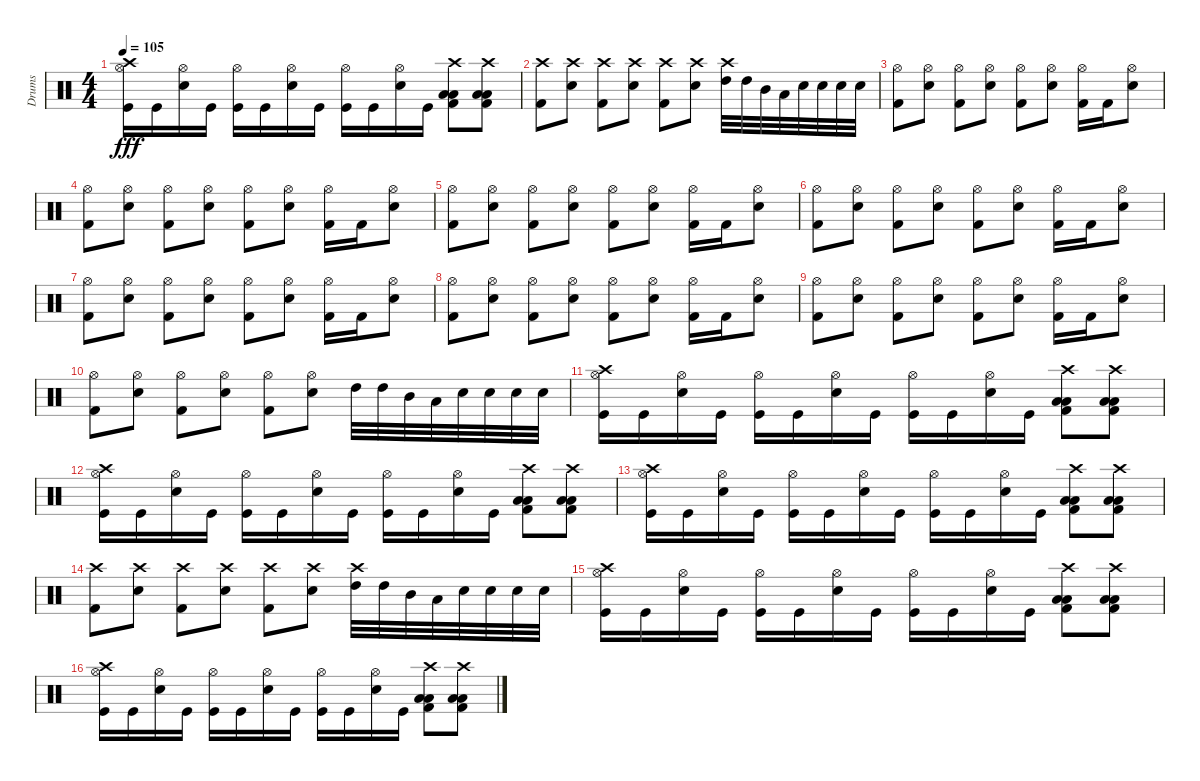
\track ("Drums" "Drums") {instrument percussion}
\staff {score}
\articulation defaults
\ts (4 4)
\tempo 105
\clef neutral
\ks c
("Crash high (hit)" "Hi-Hat (open)" "Kick (hit)").16{dy fff} "Kick (hit)".16 ("Hi-Hat (open)" "Snare (hit) 2").16 "Kick (hit)".16 ("Hi-Hat (open)" "Kick (hit)").16 "Kick (hit)".16 ("Hi-Hat (open)" "Snare (hit) 2").16 "Kick (hit)".16 ("Hi-Hat (open)" "Kick (hit)").16 "Kick (hit)".16 ("Hi-Hat (open)" "Snare (hit) 2").16 "Kick (hit)".16 ("Crash high (hit)" "Low Tom (hit)" "Low Tom (hit)" "Kick (hit) 2").8 ("Crash high (hit)" "Low Tom (hit)" "Low Tom (hit)" "Kick (hit) 2").8 |
("Crash high (hit)" "Kick (hit) 2").8 ("Crash high (hit)" "Snare (hit) 2").8 ("Crash high (hit)" "Kick (hit) 2").8 ("Crash high (hit)" "Snare (hit) 2").8 ("Crash high (hit)" "Kick (hit) 2").8 ("Crash high (hit)" "Snare (hit) 2").8 ("Crash high (hit)" "High Tom (hit)").32 "High Tom (hit)".32 "Mid Tom (hit)".32 "Low Tom (hit)".32 "Snare (hit) 2".32 "Snare (hit) 2".32 "Snare (hit) 2".32 "Snare (hit) 2".32 |
("Hi-Hat (open)" "Kick (hit) 2").8 ("Hi-Hat (open)" "Snare (hit) 2").8 ("Hi-Hat (open)" "Kick (hit) 2").8 ("Hi-Hat (open)" "Snare (hit) 2").8 ("Hi-Hat (open)" "Kick (hit) 2").8 ("Hi-Hat (open)" "Snare (hit) 2").8 ("Hi-Hat (open)" "Kick (hit) 2").16 "Kick (hit) 2".16 ("Hi-Hat (open)" "Snare (hit) 2").8 |
("Hi-Hat (open)" "Kick (hit) 2").8 ("Hi-Hat (open)" "Snare (hit) 2").8 ("Hi-Hat (open)" "Kick (hit) 2").8 ("Hi-Hat (open)" "Snare (hit) 2").8 ("Hi-Hat (open)" "Kick (hit) 2").8 ("Hi-Hat (open)" "Snare (hit) 2").8 ("Hi-Hat (open)" "Kick (hit) 2").16 "Kick (hit) 2".16 ("Hi-Hat (open)" "Snare (hit) 2").8 |
("Hi-Hat (open)" "Kick (hit) 2").8 ("Hi-Hat (open)" "Snare (hit) 2").8 ("Hi-Hat (open)" "Kick (hit) 2").8 ("Hi-Hat (open)" "Snare (hit) 2").8 ("Hi-Hat (open)" "Kick (hit) 2").8 ("Hi-Hat (open)" "Snare (hit) 2").8 ("Hi-Hat (open)" "Kick (hit) 2").16 "Kick (hit) 2".16 ("Hi-Hat (open)" "Snare (hit) 2").8 |
("Hi-Hat (open)" "Kick (hit) 2").8 ("Hi-Hat (open)" "Snare (hit) 2").8 ("Hi-Hat (open)" "Kick (hit) 2").8 ("Hi-Hat (open)" "Snare (hit) 2").8 ("Hi-Hat (open)" "Kick (hit) 2").8 ("Hi-Hat (open)" "Snare (hit) 2").8 ("Hi-Hat (open)" "Kick (hit) 2").16 "Kick (hit) 2".16 ("Hi-Hat (open)" "Snare (hit) 2").8 |
("Hi-Hat (open)" "Kick (hit) 2").8 ("Hi-Hat (open)" "Snare (hit) 2").8 ("Hi-Hat (open)" "Kick (hit) 2").8 ("Hi-Hat (open)" "Snare (hit) 2").8 ("Hi-Hat (open)" "Kick (hit) 2").8 ("Hi-Hat (open)" "Snare (hit) 2").8 ("Hi-Hat (open)" "Kick (hit) 2").16 "Kick (hit) 2".16 ("Hi-Hat (open)" "Snare (hit) 2").8 |
("Hi-Hat (open)" "Kick (hit) 2").8 ("Hi-Hat (open)" "Snare (hit) 2").8 ("Hi-Hat (open)" "Kick (hit) 2").8 ("Hi-Hat (open)" "Snare (hit) 2").8 ("Hi-Hat (open)" "Kick (hit) 2").8 ("Hi-Hat (open)" "Snare (hit) 2").8 ("Hi-Hat (open)" "Kick (hit) 2").16 "Kick (hit) 2".16 ("Hi-Hat (open)" "Snare (hit) 2").8 |
("Hi-Hat (open)" "Kick (hit) 2").8 ("Hi-Hat (open)" "Snare (hit) 2").8 ("Hi-Hat (open)" "Kick (hit) 2").8 ("Hi-Hat (open)" "Snare (hit) 2").8 ("Hi-Hat (open)" "Kick (hit) 2").8 ("Hi-Hat (open)" "Snare (hit) 2").8 ("Hi-Hat (open)" "Kick (hit) 2").16 "Kick (hit) 2".16 ("Hi-Hat (open)" "Snare (hit) 2").8 |
("Hi-Hat (open)" "Kick (hit) 2").8 ("Hi-Hat (open)" "Snare (hit) 2").8 ("Hi-Hat (open)" "Kick (hit) 2").8 ("Hi-Hat (open)" "Snare (hit) 2").8 ("Hi-Hat (open)" "Kick (hit) 2").8 ("Hi-Hat (open)" "Snare (hit) 2").8 "High Tom (hit)".32 "High Tom (hit)".32 "Mid Tom (hit)".32 "Low Tom (hit)".32 "Snare (hit) 2".32 "Snare (hit) 2".32 "Snare (hit) 2".32 "Snare (hit) 2".32 |
("Crash high (hit)" "Hi-Hat (open)" "Kick (hit)").16 "Kick (hit)".16 ("Hi-Hat (open)" "Snare (hit) 2").16 "Kick (hit)".16 ("Hi-Hat (open)" "Kick (hit)").16 "Kick (hit)".16 ("Hi-Hat (open)" "Snare (hit) 2").16 "Kick (hit)".16 ("Hi-Hat (open)" "Kick (hit)").16 "Kick (hit)".16 ("Hi-Hat (open)" "Snare (hit) 2").16 "Kick (hit)".16 ("Crash high (hit)" "Low Tom (hit)" "Low Tom (hit)" "Kick (hit) 2").8 ("Crash high (hit)" "Low Tom (hit)" "Low Tom (hit)" "Kick (hit) 2").8 |
("Crash high (hit)" "Hi-Hat (open)" "Kick (hit)").16 "Kick (hit)".16 ("Hi-Hat (open)" "Snare (hit) 2").16 "Kick (hit)".16 ("Hi-Hat (open)" "Kick (hit)").16 "Kick (hit)".16 ("Hi-Hat (open)" "Snare (hit) 2").16 "Kick (hit)".16 ("Hi-Hat (open)" "Kick (hit)").16 "Kick (hit)".16 ("Hi-Hat (open)" "Snare (hit) 2").16 "Kick (hit)".16 ("Crash high (hit)" "Low Tom (hit)" "Low Tom (hit)" "Kick (hit) 2").8 ("Crash high (hit)" "Low Tom (hit)" "Low Tom (hit)" "Kick (hit) 2").8 |
("Crash high (hit)" "Hi-Hat (open)" "Kick (hit)").16 "Kick (hit)".16 ("Hi-Hat (open)" "Snare (hit) 2").16 "Kick (hit)".16 ("Hi-Hat (open)" "Kick (hit)").16 "Kick (hit)".16 ("Hi-Hat (open)" "Snare (hit) 2").16 "Kick (hit)".16 ("Hi-Hat (open)" "Kick (hit)").16 "Kick (hit)".16 ("Hi-Hat (open)" "Snare (hit) 2").16 "Kick (hit)".16 ("Crash high (hit)" "Low Tom (hit)" "Low Tom (hit)" "Kick (hit) 2").8 ("Crash high (hit)" "Low Tom (hit)" "Low Tom (hit)" "Kick (hit) 2").8 |
("Crash high (hit)" "Kick (hit) 2").8 ("Crash high (hit)" "Snare (hit) 2").8 ("Crash high (hit)" "Kick (hit) 2").8 ("Crash high (hit)" "Snare (hit) 2").8 ("Crash high (hit)" "Kick (hit) 2").8 ("Crash high (hit)" "Snare (hit) 2").8 ("Crash high (hit)" "High Tom (hit)").32 "High Tom (hit)".32 "Mid Tom (hit)".32 "Low Tom (hit)".32 "Snare (hit) 2".32 "Snare (hit) 2".32 "Snare (hit) 2".32 "Snare (hit) 2".32 |
("Crash high (hit)" "Hi-Hat (open)" "Kick (hit)").16 "Kick (hit)".16 ("Hi-Hat (open)" "Snare (hit) 2").16 "Kick (hit)".16 ("Hi-Hat (open)" "Kick (hit)").16 "Kick (hit)".16 ("Hi-Hat (open)" "Snare (hit) 2").16 "Kick (hit)".16 ("Hi-Hat (open)" "Kick (hit)").16 "Kick (hit)".16 ("Hi-Hat (open)" "Snare (hit) 2").16 "Kick (hit)".16 ("Crash high (hit)" "Low Tom (hit)" "Low Tom (hit)" "Kick (hit) 2").8 ("Crash high (hit)" "Low Tom (hit)" "Low Tom (hit)" "Kick (hit) 2").8 |
("Crash high (hit)" "Hi-Hat (open)" "Kick (hit)").16 "Kick (hit)".16 ("Hi-Hat (open)" "Snare (hit) 2").16 "Kick (hit)".16 ("Hi-Hat (open)" "Kick (hit)").16 "Kick (hit)".16 ("Hi-Hat (open)" "Snare (hit) 2").16 "Kick (hit)".16 ("Hi-Hat (open)" "Kick (hit)").16 "Kick (hit)".16 ("Hi-Hat (open)" "Snare (hit) 2").16 "Kick (hit)".16 ("Crash high (hit)" "Low Tom (hit)" "Low Tom (hit)" "Kick (hit) 2").8 ("Crash high (hit)" "Low Tom (hit)" "Low Tom (hit)" "Kick (hit) 2").8
